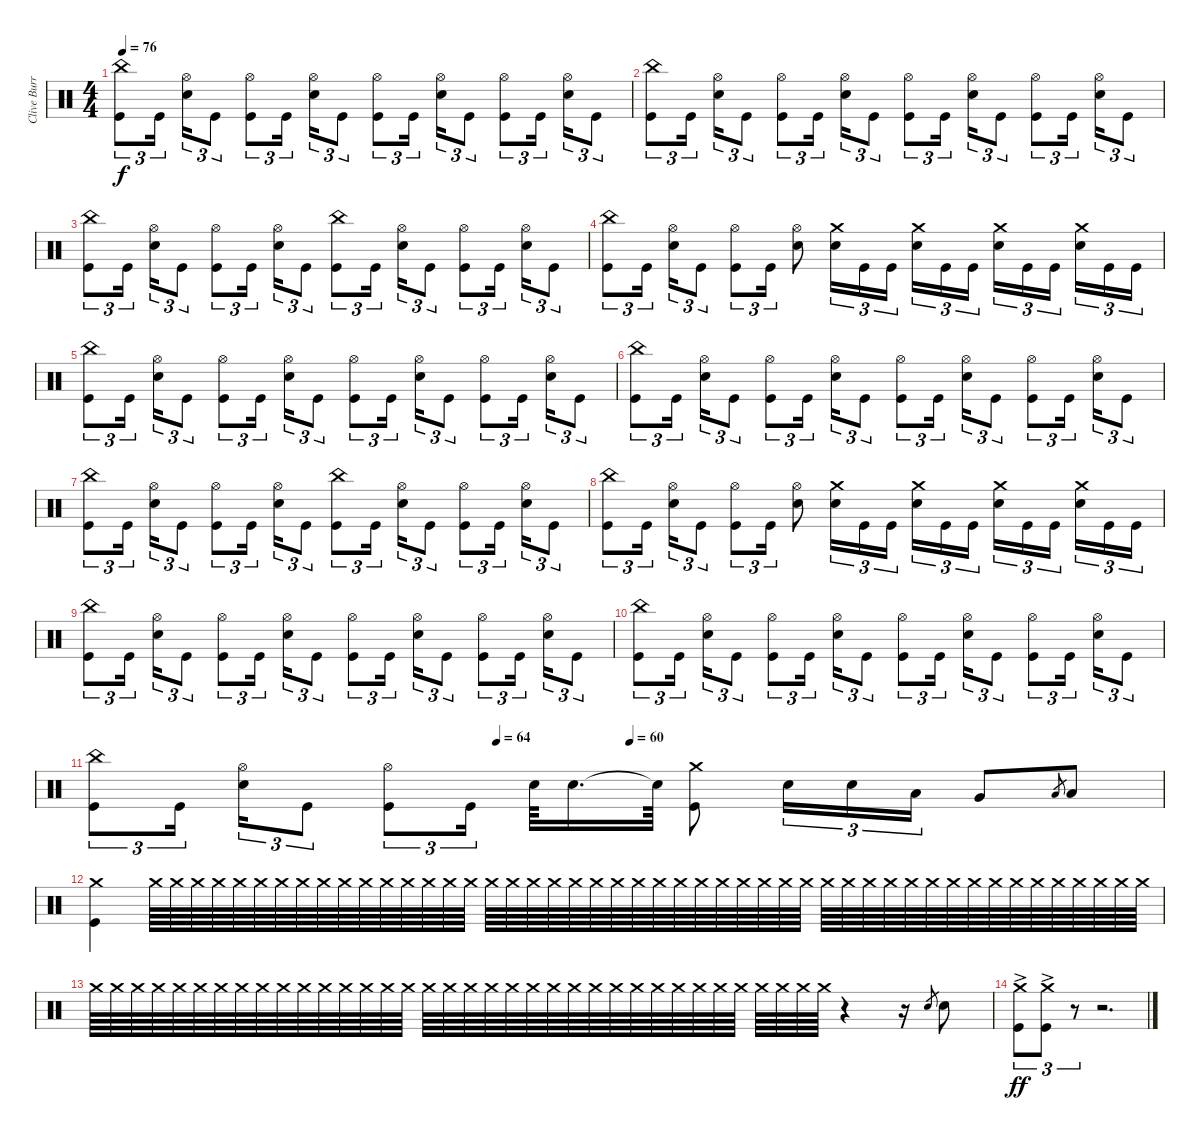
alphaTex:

\track ("Clive Burr" "Clive Burr") {instrument percussion}
\staff {score}
\articulation defaults
\ts (4 4)
\tempo 76
\clef neutral
\ks c
("China (hit)" "Kick (hit)").8{tu (3 2) dy f} "Kick (hit)".16{tu (3 2) beam splitsecondary} ("Hi-Hat (open)" "Electric Snare (hit)").16{tu (3 2)} "Kick (hit)".8{tu (3 2)} ("Hi-Hat (open)" "Kick (hit)").8{tu (3 2)} "Kick (hit)".16{tu (3 2) beam splitsecondary} ("Hi-Hat (open)" "Electric Snare (hit)").16{tu (3 2)} "Kick (hit)".8{tu (3 2)} ("Hi-Hat (open)" "Kick (hit)").8{tu (3 2)} "Kick (hit)".16{tu (3 2) beam splitsecondary} ("Hi-Hat (open)" "Electric Snare (hit)").16{tu (3 2)} "Kick (hit)".8{tu (3 2)} ("Hi-Hat (open)" "Kick (hit)").8{tu (3 2)} "Kick (hit)".16{tu (3 2) beam splitsecondary} ("Hi-Hat (open)" "Electric Snare (hit)").16{tu (3 2)} "Kick (hit)".8{tu (3 2)} |
("China (hit)" "Kick (hit)").8{tu (3 2)} "Kick (hit)".16{tu (3 2) beam splitsecondary} ("Hi-Hat (open)" "Electric Snare (hit)").16{tu (3 2)} "Kick (hit)".8{tu (3 2)} ("Hi-Hat (open)" "Kick (hit)").8{tu (3 2)} "Kick (hit)".16{tu (3 2) beam splitsecondary} ("Hi-Hat (open)" "Electric Snare (hit)").16{tu (3 2)} "Kick (hit)".8{tu (3 2)} ("Hi-Hat (open)" "Kick (hit)").8{tu (3 2)} "Kick (hit)".16{tu (3 2) beam splitsecondary} ("Hi-Hat (open)" "Electric Snare (hit)").16{tu (3 2)} "Kick (hit)".8{tu (3 2)} ("Hi-Hat (open)" "Kick (hit)").8{tu (3 2)} "Kick (hit)".16{tu (3 2) beam splitsecondary} ("Hi-Hat (open)" "Electric Snare (hit)").16{tu (3 2)} "Kick (hit)".8{tu (3 2)} |
("China (hit)" "Kick (hit)").8{tu (3 2)} "Kick (hit)".16{tu (3 2) beam splitsecondary} ("Hi-Hat (open)" "Electric Snare (hit)").16{tu (3 2)} "Kick (hit)".8{tu (3 2)} ("Hi-Hat (open)" "Kick (hit)").8{tu (3 2)} "Kick (hit)".16{tu (3 2) beam splitsecondary} ("Hi-Hat (open)" "Electric Snare (hit)").16{tu (3 2)} "Kick (hit)".8{tu (3 2)} ("China (hit)" "Kick (hit)").8{tu (3 2)} "Kick (hit)".16{tu (3 2) beam splitsecondary} ("Hi-Hat (open)" "Electric Snare (hit)").16{tu (3 2)} "Kick (hit)".8{tu (3 2)} ("Hi-Hat (open)" "Kick (hit)").8{tu (3 2)} "Kick (hit)".16{tu (3 2) beam splitsecondary} ("Hi-Hat (open)" "Electric Snare (hit)").16{tu (3 2)} "Kick (hit)".8{tu (3 2)} |
("China (hit)" "Kick (hit)").8{tu (3 2)} "Kick (hit)".16{tu (3 2) beam splitsecondary} ("Hi-Hat (open)" "Electric Snare (hit)").16{tu (3 2)} "Kick (hit)".8{tu (3 2)} ("Hi-Hat (open)" "Kick (hit)").8{tu (3 2)} "Kick (hit)".16{tu (3 2)} ("Hi-Hat (open)" "Electric Snare (hit)").8 ("Crash medium (hit)" "Electric Snare (hit)").16{tu (3 2)} "Kick (hit)".16{tu (3 2)} "Kick (hit)".16{tu (3 2) beam splitsecondary} ("Crash medium (hit)" "Electric Snare (hit)").16{tu (3 2)} "Kick (hit)".16{tu (3 2)} "Kick (hit)".16{tu (3 2)} ("Crash medium (hit)" "Electric Snare (hit)").16{tu (3 2)} "Kick (hit)".16{tu (3 2)} "Kick (hit)".16{tu (3 2) beam splitsecondary} ("Crash medium (hit)" "Electric Snare (hit)").16{tu (3 2)} "Kick (hit)".16{tu (3 2)} "Kick (hit)".16{tu (3 2)} |
("China (hit)" "Kick (hit)").8{tu (3 2)} "Kick (hit)".16{tu (3 2) beam splitsecondary} ("Hi-Hat (open)" "Electric Snare (hit)").16{tu (3 2)} "Kick (hit)".8{tu (3 2)} ("Hi-Hat (open)" "Kick (hit)").8{tu (3 2)} "Kick (hit)".16{tu (3 2) beam splitsecondary} ("Hi-Hat (open)" "Electric Snare (hit)").16{tu (3 2)} "Kick (hit)".8{tu (3 2)} ("Hi-Hat (open)" "Kick (hit)").8{tu (3 2)} "Kick (hit)".16{tu (3 2) beam splitsecondary} ("Hi-Hat (open)" "Electric Snare (hit)").16{tu (3 2)} "Kick (hit)".8{tu (3 2)} ("Hi-Hat (open)" "Kick (hit)").8{tu (3 2)} "Kick (hit)".16{tu (3 2) beam splitsecondary} ("Hi-Hat (open)" "Electric Snare (hit)").16{tu (3 2)} "Kick (hit)".8{tu (3 2)} |
("China (hit)" "Kick (hit)").8{tu (3 2)} "Kick (hit)".16{tu (3 2) beam splitsecondary} ("Hi-Hat (open)" "Electric Snare (hit)").16{tu (3 2)} "Kick (hit)".8{tu (3 2)} ("Hi-Hat (open)" "Kick (hit)").8{tu (3 2)} "Kick (hit)".16{tu (3 2) beam splitsecondary} ("Hi-Hat (open)" "Electric Snare (hit)").16{tu (3 2)} "Kick (hit)".8{tu (3 2)} ("Hi-Hat (open)" "Kick (hit)").8{tu (3 2)} "Kick (hit)".16{tu (3 2) beam splitsecondary} ("Hi-Hat (open)" "Electric Snare (hit)").16{tu (3 2)} "Kick (hit)".8{tu (3 2)} ("Hi-Hat (open)" "Kick (hit)").8{tu (3 2)} "Kick (hit)".16{tu (3 2) beam splitsecondary} ("Hi-Hat (open)" "Electric Snare (hit)").16{tu (3 2)} "Kick (hit)".8{tu (3 2)} |
("China (hit)" "Kick (hit)").8{tu (3 2)} "Kick (hit)".16{tu (3 2) beam splitsecondary} ("Hi-Hat (open)" "Electric Snare (hit)").16{tu (3 2)} "Kick (hit)".8{tu (3 2)} ("Hi-Hat (open)" "Kick (hit)").8{tu (3 2)} "Kick (hit)".16{tu (3 2) beam splitsecondary} ("Hi-Hat (open)" "Electric Snare (hit)").16{tu (3 2)} "Kick (hit)".8{tu (3 2)} ("China (hit)" "Kick (hit)").8{tu (3 2)} "Kick (hit)".16{tu (3 2) beam splitsecondary} ("Hi-Hat (open)" "Electric Snare (hit)").16{tu (3 2)} "Kick (hit)".8{tu (3 2)} ("Hi-Hat (open)" "Kick (hit)").8{tu (3 2)} "Kick (hit)".16{tu (3 2) beam splitsecondary} ("Hi-Hat (open)" "Electric Snare (hit)").16{tu (3 2)} "Kick (hit)".8{tu (3 2)} |
("China (hit)" "Kick (hit)").8{tu (3 2)} "Kick (hit)".16{tu (3 2) beam splitsecondary} ("Hi-Hat (open)" "Electric Snare (hit)").16{tu (3 2)} "Kick (hit)".8{tu (3 2)} ("Hi-Hat (open)" "Kick (hit)").8{tu (3 2)} "Kick (hit)".16{tu (3 2)} ("Hi-Hat (open)" "Electric Snare (hit)").8 ("Crash medium (hit)" "Electric Snare (hit)").16{tu (3 2)} "Kick (hit)".16{tu (3 2)} "Kick (hit)".16{tu (3 2) beam splitsecondary} ("Crash medium (hit)" "Electric Snare (hit)").16{tu (3 2)} "Kick (hit)".16{tu (3 2)} "Kick (hit)".16{tu (3 2)} ("Crash medium (hit)" "Electric Snare (hit)").16{tu (3 2)} "Kick (hit)".16{tu (3 2)} "Kick (hit)".16{tu (3 2) beam splitsecondary} ("Crash medium (hit)" "Electric Snare (hit)").16{tu (3 2)} "Kick (hit)".16{tu (3 2)} "Kick (hit)".16{tu (3 2)} |
("China (hit)" "Kick (hit)").8{tu (3 2)} "Kick (hit)".16{tu (3 2) beam splitsecondary} ("Hi-Hat (open)" "Electric Snare (hit)").16{tu (3 2)} "Kick (hit)".8{tu (3 2)} ("Hi-Hat (open)" "Kick (hit)").8{tu (3 2)} "Kick (hit)".16{tu (3 2) beam splitsecondary} ("Hi-Hat (open)" "Electric Snare (hit)").16{tu (3 2)} "Kick (hit)".8{tu (3 2)} ("Hi-Hat (open)" "Kick (hit)").8{tu (3 2)} "Kick (hit)".16{tu (3 2) beam splitsecondary} ("Hi-Hat (open)" "Electric Snare (hit)").16{tu (3 2)} "Kick (hit)".8{tu (3 2)} ("Hi-Hat (open)" "Kick (hit)").8{tu (3 2)} "Kick (hit)".16{tu (3 2) beam splitsecondary} ("Hi-Hat (open)" "Electric Snare (hit)").16{tu (3 2)} "Kick (hit)".8{tu (3 2)} |
("China (hit)" "Kick (hit)").8{tu (3 2)} "Kick (hit)".16{tu (3 2) beam splitsecondary} ("Hi-Hat (open)" "Electric Snare (hit)").16{tu (3 2)} "Kick (hit)".8{tu (3 2)} ("Hi-Hat (open)" "Kick (hit)").8{tu (3 2)} "Kick (hit)".16{tu (3 2) beam splitsecondary} ("Hi-Hat (open)" "Electric Snare (hit)").16{tu (3 2)} "Kick (hit)".8{tu (3 2)} ("Hi-Hat (open)" "Kick (hit)").8{tu (3 2)} "Kick (hit)".16{tu (3 2) beam splitsecondary} ("Hi-Hat (open)" "Electric Snare (hit)").16{tu (3 2)} "Kick (hit)".8{tu (3 2)} ("Hi-Hat (open)" "Kick (hit)").8{tu (3 2)} "Kick (hit)".16{tu (3 2) beam splitsecondary} ("Hi-Hat (open)" "Electric Snare (hit)").16{tu (3 2)} "Kick (hit)".8{tu (3 2)} |
\tempo (64 0.375)
\tempo (60 0.5)
("China (hit)" "Kick (hit)").8{tu (3 2)} "Kick (hit)".16{tu (3 2) beam splitsecondary} ("Hi-Hat (open)" "Electric Snare (hit)").16{tu (3 2)} "Kick (hit)".8{tu (3 2)} ("Hi-Hat (open)" "Kick (hit)").8{tu (3 2)} "Kick (hit)".16{tu (3 2) beam splitsecondary} "Electric Snare (hit)".64 "Electric Snare (hit)".16{d} "Electric Snare (hit)"{t}.64 ("Crash medium (hit)" "Kick (hit)").8 "Electric Snare (hit)".16{tu (3 2)} "Electric Snare (hit)".16{tu (3 2)} "Low Tom (hit)".16{tu (3 2)} "Very Low Tom (hit)".8 "Low Floor Tom (hit)".8{gr} "Low Floor Tom (hit)".8 |
("Crash medium (hit)" "Kick (hit)").4 "Crash medium (hit)".64{volume 0} "Crash medium (hit)".64{volume 14} "Crash medium (hit)".64 "Crash medium (hit)".64 "Crash medium (hit)".64 "Crash medium (hit)".64 "Crash medium (hit)".64 "Crash medium (hit)".64 "Crash medium (hit)".64 "Crash medium (hit)".64 "Crash medium (hit)".64 "Crash medium (hit)".64 "Crash medium (hit)".64 "Crash medium (hit)".64 "Crash medium (hit)".64 "Crash medium (hit)".64 "Crash medium (hit)".64 "Crash medium (hit)".64 "Crash medium (hit)".64 "Crash medium (hit)".64 "Crash medium (hit)".64 "Crash medium (hit)".64 "Crash medium (hit)".64 "Crash medium (hit)".64 "Crash medium (hit)".64 "Crash medium (hit)".64 "Crash medium (hit)".64 "Crash medium (hit)".64 "Crash medium (hit)".64 "Crash medium (hit)".64 "Crash medium (hit)".64 "Crash medium (hit)".64 "Crash medium (hit)".64 "Crash medium (hit)".64 "Crash medium (hit)".64 "Crash medium (hit)".64 "Crash medium (hit)".64 "Crash medium (hit)".64 "Crash medium (hit)".64 "Crash medium (hit)".64 "Crash medium (hit)".64 "Crash medium (hit)".64 "Crash medium (hit)".64 "Crash medium (hit)".64 "Crash medium (hit)".64 "Crash medium (hit)".64 "Crash medium (hit)".64 "Crash medium (hit)".64 |
"Crash medium (hit)".64 "Crash medium (hit)".64 "Crash medium (hit)".64 "Crash medium (hit)".64 "Crash medium (hit)".64 "Crash medium (hit)".64 "Crash medium (hit)".64 "Crash medium (hit)".64 "Crash medium (hit)".64 "Crash medium (hit)".64 "Crash medium (hit)".64 "Crash medium (hit)".64 "Crash medium (hit)".64 "Crash medium (hit)".64 "Crash medium (hit)".64 "Crash medium (hit)".64 "Crash medium (hit)".64 "Crash medium (hit)".64 "Crash medium (hit)".64 "Crash medium (hit)".64 "Crash medium (hit)".64 "Crash medium (hit)".64 "Crash medium (hit)".64 "Crash medium (hit)".64 "Crash medium (hit)".64 "Crash medium (hit)".64 "Crash medium (hit)".64 "Crash medium (hit)".64 "Crash medium (hit)".64 "Crash medium (hit)".64 "Crash medium (hit)".64 "Crash medium (hit)".64 "Crash medium (hit)".64 "Crash medium (hit)".64 "Crash medium (hit)".64 "Crash medium (hit)".64 r.4 r.16 "Electric Snare (hit)".8{gr} "Electric Snare (hit)".8 |
("Crash medium (hit)"{ac} "Kick (hit)"{ac}).8{tu (3 2) dy ff} ("Crash medium (hit)"{ac} "Kick (hit)"{ac}).8{tu (3 2)} r.8{tu (3 2)} r.2{d}
